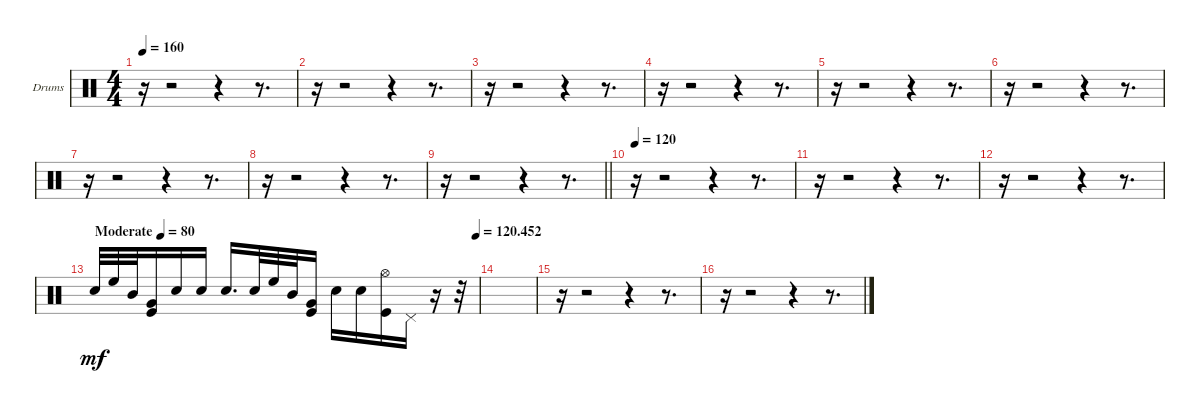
\bracketExtendMode groupsimilarinstruments
\firstSystemTrackNameOrientation horizontal
\otherSystemsTrackNameOrientation horizontal
\track ("Drumkit" "Drums") {instrument percussion}
\staff {score}
\articulation defaults
\ts (4 4)
\tempo 160
\clef neutral
\ks c
r.16{dy fff} r.2 r.4 r.8{d} |
r.16 r.2 r.4 r.8{d} |
r.16 r.2 r.4 r.8{d} |
r.16 r.2 r.4 r.8{d} |
r.16 r.2 r.4 r.8{d} |
r.16 r.2 r.4 r.8{d} |
r.16 r.2 r.4 r.8{d} |
r.16 r.2 r.4 r.8{d} |
\barLineRight lightlight
r.16 r.2 r.4 r.8{d} |
\tempo 120
r.16 r.2 r.4 r.8{d} |
r.16 r.2 r.4 r.8{d} |
r.16 r.2 r.4 r.8{d} |
\tempo (80 "Moderate")
\tempo (120.452 0.99375)
"Snare (hit) 2".32{dy mf} "High Floor Tom (hit)".32 "Mid Tom (hit)".32 ("Very Low Tom (hit)" "Kick (hit)").16 "Snare (hit) 2".16 "Snare (hit) 2".16 "Snare (hit) 2".16{d} "Snare (hit) 2".32 "High Floor Tom (hit)".32 "Mid Tom (hit)".32 ("Very Low Tom (hit)" "Kick (hit)").16 "Snare (hit) 2".16 "Snare (hit) 2".16 ("Kick (hit)" "Hi-Hat (open)").16 "Pedal Hi-Hat (hit)".16 r.16 r.32 |
|
r.16 r.2 r.4 r.8{d} |
r.16 r.2 r.4 r.8{d}
